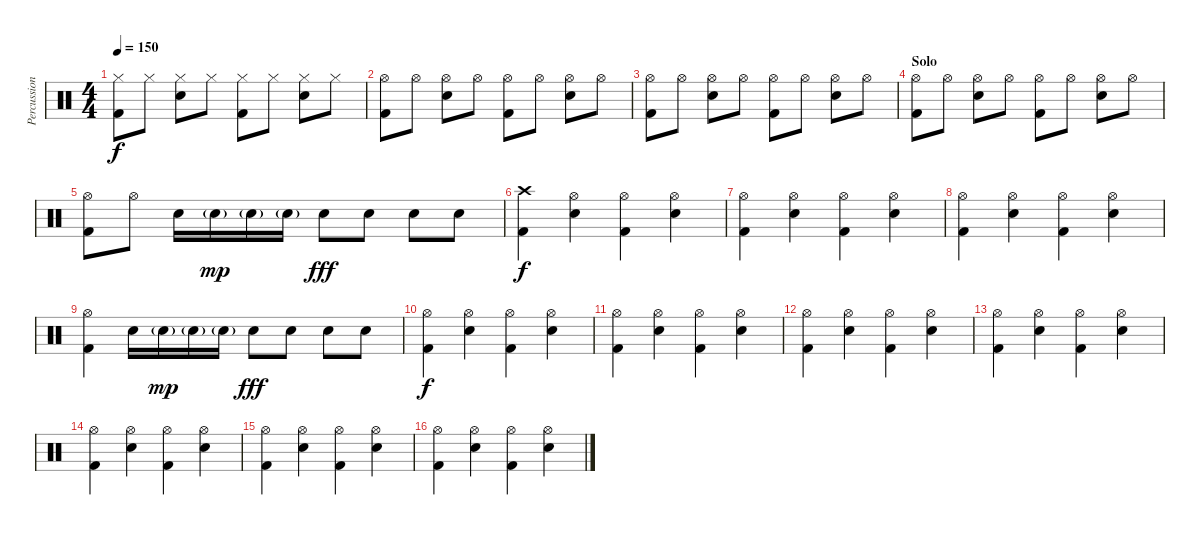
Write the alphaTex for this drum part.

\track ("Percussions" "Percussion") {instrument percussion}
\staff {score}
\articulation defaults
\ts (4 4)
\tempo 150
\clef neutral
\ks c
("Hi-Hat (closed)" "Kick (hit) 2").8{dy f} "Hi-Hat (closed)".8 ("Hi-Hat (closed)" "Snare (hit) 2").8 "Hi-Hat (closed)".8 ("Hi-Hat (closed)" "Kick (hit) 2").8 "Hi-Hat (closed)".8 ("Hi-Hat (closed)" "Snare (hit) 2").8 "Hi-Hat (closed)".8 |
("Hi-Hat (open)" "Kick (hit) 2").8 "Hi-Hat (open)".8 ("Hi-Hat (open)" "Snare (hit) 2").8 "Hi-Hat (open)".8 ("Hi-Hat (open)" "Kick (hit) 2").8 "Hi-Hat (open)".8 ("Hi-Hat (open)" "Snare (hit) 2").8 "Hi-Hat (open)".8 |
("Hi-Hat (open)" "Kick (hit) 2").8 "Hi-Hat (open)".8 ("Hi-Hat (open)" "Snare (hit) 2").8 "Hi-Hat (open)".8 ("Hi-Hat (open)" "Kick (hit) 2").8 "Hi-Hat (open)".8 ("Hi-Hat (open)" "Snare (hit) 2").8 "Hi-Hat (open)".8 |
\section ("" "Solo")
("Hi-Hat (open)" "Kick (hit) 2").8 "Hi-Hat (open)".8 ("Hi-Hat (open)" "Snare (hit) 2").8 "Hi-Hat (open)".8 ("Hi-Hat (open)" "Kick (hit) 2").8 "Hi-Hat (open)".8 ("Hi-Hat (open)" "Snare (hit) 2").8 "Hi-Hat (open)".8 |
("Hi-Hat (open)" "Kick (hit) 2").8 "Hi-Hat (open)".8 "Snare (hit) 2".16 "Snare (hit) 2"{g}.16{dy mp} "Snare (hit) 2"{g}.16 "Snare (hit) 2"{g}.16 "Snare (hit) 2".8{dy fff} "Snare (hit) 2".8 "Snare (hit) 2".8 "Snare (hit) 2".8 |
("Crash high (hit)" "Kick (hit) 2").4{dy f} ("Hi-Hat (open)" "Snare (hit) 2").4 ("Hi-Hat (open)" "Kick (hit) 2").4 ("Hi-Hat (open)" "Snare (hit) 2").4 |
("Hi-Hat (open)" "Kick (hit) 2").4 ("Hi-Hat (open)" "Snare (hit) 2").4 ("Hi-Hat (open)" "Kick (hit) 2").4 ("Hi-Hat (open)" "Snare (hit) 2").4 |
("Hi-Hat (open)" "Kick (hit) 2").4 ("Hi-Hat (open)" "Snare (hit) 2").4 ("Hi-Hat (open)" "Kick (hit) 2").4 ("Hi-Hat (open)" "Snare (hit) 2").4 |
("Hi-Hat (open)" "Kick (hit) 2").4 "Snare (hit) 2".16 "Snare (hit) 2"{g}.16{dy mp} "Snare (hit) 2"{g}.16 "Snare (hit) 2"{g}.16 "Snare (hit) 2".8{dy fff} "Snare (hit) 2".8 "Snare (hit) 2".8 "Snare (hit) 2".8 |
("Hi-Hat (open)" "Kick (hit) 2").4{dy f} ("Hi-Hat (open)" "Snare (hit) 2").4 ("Hi-Hat (open)" "Kick (hit) 2").4 ("Hi-Hat (open)" "Snare (hit) 2").4 |
("Hi-Hat (open)" "Kick (hit) 2").4 ("Hi-Hat (open)" "Snare (hit) 2").4 ("Hi-Hat (open)" "Kick (hit) 2").4 ("Hi-Hat (open)" "Snare (hit) 2").4 |
("Hi-Hat (open)" "Kick (hit) 2").4 ("Hi-Hat (open)" "Snare (hit) 2").4 ("Hi-Hat (open)" "Kick (hit) 2").4 ("Hi-Hat (open)" "Snare (hit) 2").4 |
("Hi-Hat (open)" "Kick (hit) 2").4 ("Hi-Hat (open)" "Snare (hit) 2").4 ("Hi-Hat (open)" "Kick (hit) 2").4 ("Hi-Hat (open)" "Snare (hit) 2").4 |
("Hi-Hat (open)" "Kick (hit) 2").4 ("Hi-Hat (open)" "Snare (hit) 2").4 ("Hi-Hat (open)" "Kick (hit) 2").4 ("Hi-Hat (open)" "Snare (hit) 2").4 |
("Hi-Hat (open)" "Kick (hit) 2").4 ("Hi-Hat (open)" "Snare (hit) 2").4 ("Hi-Hat (open)" "Kick (hit) 2").4 ("Hi-Hat (open)" "Snare (hit) 2").4 |
("Hi-Hat (open)" "Kick (hit) 2").4 ("Hi-Hat (open)" "Snare (hit) 2").4 ("Hi-Hat (open)" "Kick (hit) 2").4 ("Hi-Hat (open)" "Snare (hit) 2").4
